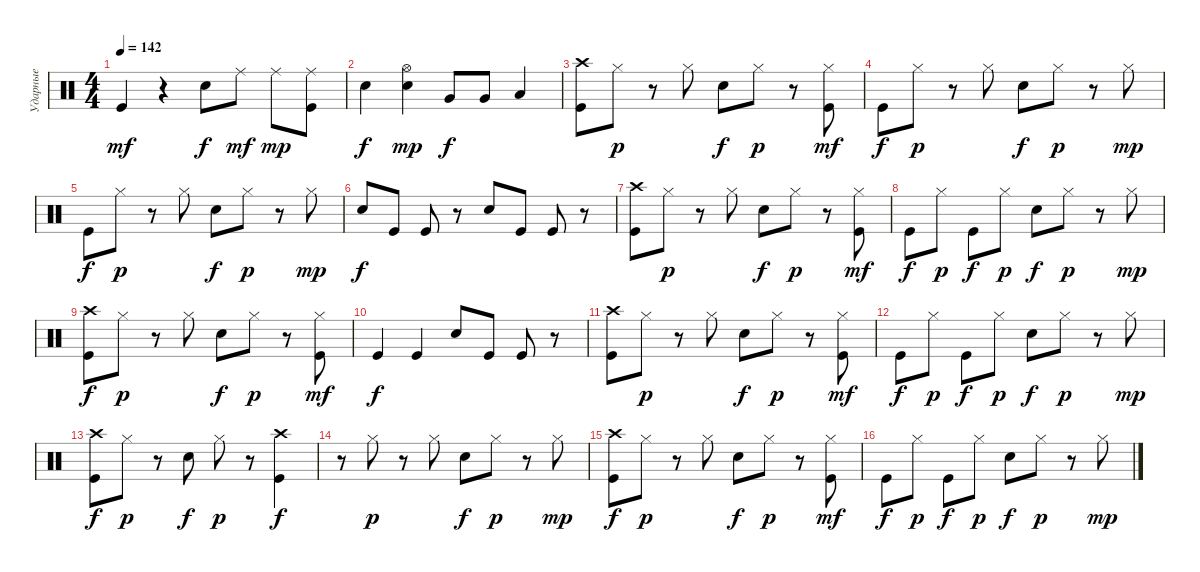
\track ("Ударные" "Ударные") {instrument percussion}
\staff {score}
\articulation defaults
\ts (4 4)
\tempo 142
\clef neutral
\ks c "Kick (hit)".4{dy mf}
r.4 "Snare (hit) 2".8{dy f} "Ride (middle)".8{dy mf} "Ride (middle)".8{dy mp} ("Kick (hit)" "Ride (middle)").8 |
"Electric Snare (hit)".4{dy f} ("Hi-Hat (open)" "Electric Snare (hit)").4{dy mp} "Very Low Tom (hit)".8{dy f} "Very Low Tom (hit)".8 "Low Floor Tom (hit)".4 |
("Crash high (hit)" "Kick (hit)").8 "Hi-Hat (closed)".8{dy p} r.8 "Hi-Hat (closed)".8 "Snare (hit) 2".8{dy f} "Hi-Hat (closed)".8{dy p} r.8 ("Hi-Hat (closed)" "Kick (hit)").8{dy mf} |
"Kick (hit)".8{dy f} "Hi-Hat (closed)".8{dy p} r.8 "Hi-Hat (closed)".8 "Snare (hit) 2".8{dy f} "Hi-Hat (closed)".8{dy p} r.8 "Hi-Hat (closed)".8{dy mp} |
"Kick (hit)".8{dy f} "Hi-Hat (closed)".8{dy p} r.8 "Hi-Hat (closed)".8 "Snare (hit) 2".8{dy f} "Hi-Hat (closed)".8{dy p} r.8 "Hi-Hat (closed)".8{dy mp} |
"Electric Snare (hit)".8{dy f} "Kick (hit)".8 "Kick (hit)".8 r.8 "Electric Snare (hit)".8 "Kick (hit)".8 "Kick (hit)".8 r.8 |
("Crash high (hit)" "Kick (hit)").8 "Hi-Hat (closed)".8{dy p} r.8 "Hi-Hat (closed)".8 "Snare (hit) 2".8{dy f} "Hi-Hat (closed)".8{dy p} r.8 ("Hi-Hat (closed)" "Kick (hit)").8{dy mf} |
"Kick (hit)".8{dy f} "Hi-Hat (closed)".8{dy p} "Kick (hit)".8{dy f} "Hi-Hat (closed)".8{dy p} "Snare (hit) 2".8{dy f} "Hi-Hat (closed)".8{dy p} r.8 "Hi-Hat (closed)".8{dy mp} |
("Crash high (hit)" "Kick (hit)").8{dy f} "Hi-Hat (closed)".8{dy p} r.8 "Hi-Hat (closed)".8 "Snare (hit) 2".8{dy f} "Hi-Hat (closed)".8{dy p} r.8 ("Hi-Hat (closed)" "Kick (hit)").8{dy mf} |
"Kick (hit)".4{dy f} "Kick (hit)".4 "Electric Snare (hit)".8 "Kick (hit)".8 "Kick (hit)".8 r.8 |
("Crash high (hit)" "Kick (hit)").8 "Hi-Hat (closed)".8{dy p} r.8 "Hi-Hat (closed)".8 "Snare (hit) 2".8{dy f} "Hi-Hat (closed)".8{dy p} r.8 ("Hi-Hat (closed)" "Kick (hit)").8{dy mf} |
"Kick (hit)".8{dy f} "Hi-Hat (closed)".8{dy p} "Kick (hit)".8{dy f} "Hi-Hat (closed)".8{dy p} "Snare (hit) 2".8{dy f} "Hi-Hat (closed)".8{dy p} r.8 "Hi-Hat (closed)".8{dy mp} |
("Crash high (hit)" "Kick (hit)").8{dy f} "Hi-Hat (closed)".8{dy p} r.8 "Snare (hit) 2".8{dy f} "Hi-Hat (closed)".8{dy p} r.8 ("Crash high (hit)" "Kick (hit)").4{dy f} |
r.8 "Hi-Hat (closed)".8{dy p} r.8 "Hi-Hat (closed)".8 "Snare (hit) 2".8{dy f} "Hi-Hat (closed)".8{dy p} r.8 "Hi-Hat (closed)".8{dy mp} |
("Crash high (hit)" "Kick (hit)").8{dy f} "Hi-Hat (closed)".8{dy p} r.8 "Hi-Hat (closed)".8 "Snare (hit) 2".8{dy f} "Hi-Hat (closed)".8{dy p} r.8 ("Hi-Hat (closed)" "Kick (hit)").8{dy mf} |
"Kick (hit)".8{dy f} "Hi-Hat (closed)".8{dy p} "Kick (hit)".8{dy f} "Hi-Hat (closed)".8{dy p} "Snare (hit) 2".8{dy f} "Hi-Hat (closed)".8{dy p} r.8 "Hi-Hat (closed)".8{dy mp}
